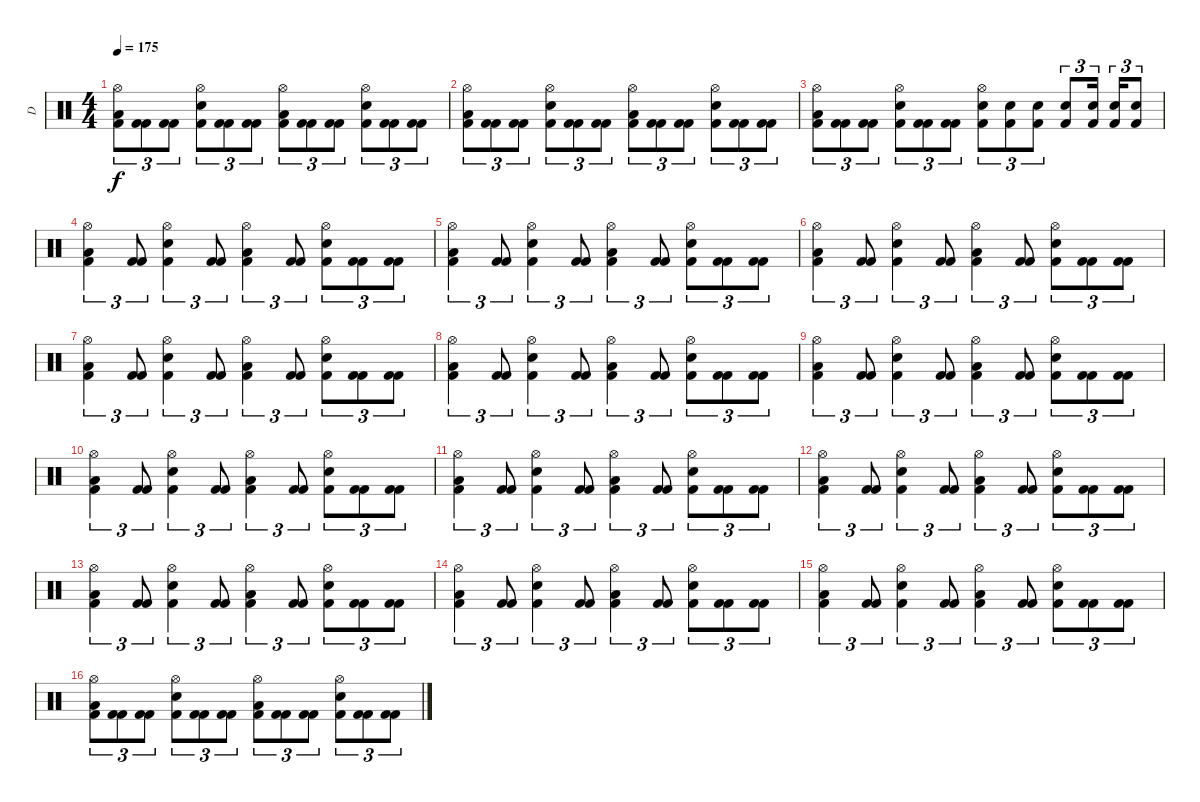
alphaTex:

\track ("D" "D") {instrument percussion}
\staff {score}
\articulation defaults
\ts (4 4)
\tempo 175
\clef neutral
\ks c
("Hi-Hat (open)" "Low Floor Tom (hit)" "Kick (hit) 2").8{tu (3 2) dy f} ("Kick (hit) 2" "Kick (hit) 2").8{tu (3 2)} ("Kick (hit) 2" "Kick (hit) 2").8{tu (3 2)} ("Hi-Hat (open)" "Electric Snare (hit)" "Kick (hit) 2").8{tu (3 2)} ("Kick (hit) 2" "Kick (hit) 2").8{tu (3 2)} ("Kick (hit) 2" "Kick (hit) 2").8{tu (3 2)} ("Hi-Hat (open)" "Low Floor Tom (hit)" "Kick (hit) 2").8{tu (3 2)} ("Kick (hit) 2" "Kick (hit) 2").8{tu (3 2)} ("Kick (hit) 2" "Kick (hit) 2").8{tu (3 2)} ("Hi-Hat (open)" "Snare (hit) 2" "Kick (hit) 2").8{tu (3 2)} ("Kick (hit) 2" "Kick (hit) 2").8{tu (3 2)} ("Kick (hit) 2" "Kick (hit) 2").8{tu (3 2)} |
("Hi-Hat (open)" "Low Floor Tom (hit)" "Kick (hit) 2").8{tu (3 2)} ("Kick (hit) 2" "Kick (hit) 2").8{tu (3 2)} ("Kick (hit) 2" "Kick (hit) 2").8{tu (3 2)} ("Hi-Hat (open)" "Electric Snare (hit)" "Kick (hit) 2").8{tu (3 2)} ("Kick (hit) 2" "Kick (hit) 2").8{tu (3 2)} ("Kick (hit) 2" "Kick (hit) 2").8{tu (3 2)} ("Hi-Hat (open)" "Low Floor Tom (hit)" "Kick (hit) 2").8{tu (3 2)} ("Kick (hit) 2" "Kick (hit) 2").8{tu (3 2)} ("Kick (hit) 2" "Kick (hit) 2").8{tu (3 2)} ("Hi-Hat (open)" "Snare (hit) 2" "Kick (hit) 2").8{tu (3 2)} ("Kick (hit) 2" "Kick (hit) 2").8{tu (3 2)} ("Kick (hit) 2" "Kick (hit) 2").8{tu (3 2)} |
("Hi-Hat (open)" "Low Floor Tom (hit)" "Kick (hit) 2").8{tu (3 2)} ("Kick (hit) 2" "Kick (hit) 2").8{tu (3 2)} ("Kick (hit) 2" "Kick (hit) 2").8{tu (3 2)} ("Hi-Hat (open)" "Electric Snare (hit)" "Kick (hit) 2").8{tu (3 2)} ("Kick (hit) 2" "Kick (hit) 2").8{tu (3 2)} ("Kick (hit) 2" "Kick (hit) 2").8{tu (3 2)} ("Hi-Hat (open)" "Snare (hit) 2" "Kick (hit) 2").8{tu (3 2)} ("Snare (hit) 2" "Kick (hit) 2").8{tu (3 2)} ("Snare (hit) 2" "Kick (hit) 2").8{tu (3 2)} ("Snare (hit) 2" "Kick (hit) 2").8{tu (3 2)} ("Snare (hit) 2" "Kick (hit) 2").16{tu (3 2)} ("Snare (hit) 2" "Kick (hit) 2").16{tu (3 2)} ("Snare (hit) 2" "Kick (hit) 2").8{tu (3 2)} |
("Hi-Hat (open)" "Low Floor Tom (hit)" "Kick (hit) 2").4{tu (3 2)} ("Kick (hit) 2" "Kick (hit) 2").8{tu (3 2)} ("Hi-Hat (open)" "Electric Snare (hit)" "Kick (hit) 2").4{tu (3 2)} ("Kick (hit) 2" "Kick (hit) 2").8{tu (3 2)} ("Hi-Hat (open)" "Low Floor Tom (hit)" "Kick (hit) 2").4{tu (3 2)} ("Kick (hit) 2" "Kick (hit) 2").8{tu (3 2)} ("Hi-Hat (open)" "Snare (hit) 2" "Kick (hit) 2").8{tu (3 2)} ("Kick (hit) 2" "Kick (hit) 2").8{tu (3 2)} ("Kick (hit) 2" "Kick (hit) 2").8{tu (3 2)} |
("Hi-Hat (open)" "Low Floor Tom (hit)" "Kick (hit) 2").4{tu (3 2)} ("Kick (hit) 2" "Kick (hit) 2").8{tu (3 2)} ("Hi-Hat (open)" "Electric Snare (hit)" "Kick (hit) 2").4{tu (3 2)} ("Kick (hit) 2" "Kick (hit) 2").8{tu (3 2)} ("Hi-Hat (open)" "Low Floor Tom (hit)" "Kick (hit) 2").4{tu (3 2)} ("Kick (hit) 2" "Kick (hit) 2").8{tu (3 2)} ("Hi-Hat (open)" "Snare (hit) 2" "Kick (hit) 2").8{tu (3 2)} ("Kick (hit) 2" "Kick (hit) 2").8{tu (3 2)} ("Kick (hit) 2" "Kick (hit) 2").8{tu (3 2)} |
("Hi-Hat (open)" "Low Floor Tom (hit)" "Kick (hit) 2").4{tu (3 2)} ("Kick (hit) 2" "Kick (hit) 2").8{tu (3 2)} ("Hi-Hat (open)" "Electric Snare (hit)" "Kick (hit) 2").4{tu (3 2)} ("Kick (hit) 2" "Kick (hit) 2").8{tu (3 2)} ("Hi-Hat (open)" "Low Floor Tom (hit)" "Kick (hit) 2").4{tu (3 2)} ("Kick (hit) 2" "Kick (hit) 2").8{tu (3 2)} ("Hi-Hat (open)" "Snare (hit) 2" "Kick (hit) 2").8{tu (3 2)} ("Kick (hit) 2" "Kick (hit) 2").8{tu (3 2)} ("Kick (hit) 2" "Kick (hit) 2").8{tu (3 2)} |
("Hi-Hat (open)" "Low Floor Tom (hit)" "Kick (hit) 2").4{tu (3 2)} ("Kick (hit) 2" "Kick (hit) 2").8{tu (3 2)} ("Hi-Hat (open)" "Electric Snare (hit)" "Kick (hit) 2").4{tu (3 2)} ("Kick (hit) 2" "Kick (hit) 2").8{tu (3 2)} ("Hi-Hat (open)" "Low Floor Tom (hit)" "Kick (hit) 2").4{tu (3 2)} ("Kick (hit) 2" "Kick (hit) 2").8{tu (3 2)} ("Hi-Hat (open)" "Snare (hit) 2" "Kick (hit) 2").8{tu (3 2)} ("Kick (hit) 2" "Kick (hit) 2").8{tu (3 2)} ("Kick (hit) 2" "Kick (hit) 2").8{tu (3 2)} |
("Hi-Hat (open)" "Low Floor Tom (hit)" "Kick (hit) 2").4{tu (3 2)} ("Kick (hit) 2" "Kick (hit) 2").8{tu (3 2)} ("Hi-Hat (open)" "Electric Snare (hit)" "Kick (hit) 2").4{tu (3 2)} ("Kick (hit) 2" "Kick (hit) 2").8{tu (3 2)} ("Hi-Hat (open)" "Low Floor Tom (hit)" "Kick (hit) 2").4{tu (3 2)} ("Kick (hit) 2" "Kick (hit) 2").8{tu (3 2)} ("Hi-Hat (open)" "Snare (hit) 2" "Kick (hit) 2").8{tu (3 2)} ("Kick (hit) 2" "Kick (hit) 2").8{tu (3 2)} ("Kick (hit) 2" "Kick (hit) 2").8{tu (3 2)} |
("Hi-Hat (open)" "Low Floor Tom (hit)" "Kick (hit) 2").4{tu (3 2)} ("Kick (hit) 2" "Kick (hit) 2").8{tu (3 2)} ("Hi-Hat (open)" "Electric Snare (hit)" "Kick (hit) 2").4{tu (3 2)} ("Kick (hit) 2" "Kick (hit) 2").8{tu (3 2)} ("Hi-Hat (open)" "Low Floor Tom (hit)" "Kick (hit) 2").4{tu (3 2)} ("Kick (hit) 2" "Kick (hit) 2").8{tu (3 2)} ("Hi-Hat (open)" "Snare (hit) 2" "Kick (hit) 2").8{tu (3 2)} ("Kick (hit) 2" "Kick (hit) 2").8{tu (3 2)} ("Kick (hit) 2" "Kick (hit) 2").8{tu (3 2)} |
("Hi-Hat (open)" "Low Floor Tom (hit)" "Kick (hit) 2").4{tu (3 2)} ("Kick (hit) 2" "Kick (hit) 2").8{tu (3 2)} ("Hi-Hat (open)" "Electric Snare (hit)" "Kick (hit) 2").4{tu (3 2)} ("Kick (hit) 2" "Kick (hit) 2").8{tu (3 2)} ("Hi-Hat (open)" "Low Floor Tom (hit)" "Kick (hit) 2").4{tu (3 2)} ("Kick (hit) 2" "Kick (hit) 2").8{tu (3 2)} ("Hi-Hat (open)" "Snare (hit) 2" "Kick (hit) 2").8{tu (3 2)} ("Kick (hit) 2" "Kick (hit) 2").8{tu (3 2)} ("Kick (hit) 2" "Kick (hit) 2").8{tu (3 2)} |
("Hi-Hat (open)" "Low Floor Tom (hit)" "Kick (hit) 2").4{tu (3 2)} ("Kick (hit) 2" "Kick (hit) 2").8{tu (3 2)} ("Hi-Hat (open)" "Electric Snare (hit)" "Kick (hit) 2").4{tu (3 2)} ("Kick (hit) 2" "Kick (hit) 2").8{tu (3 2)} ("Hi-Hat (open)" "Low Floor Tom (hit)" "Kick (hit) 2").4{tu (3 2)} ("Kick (hit) 2" "Kick (hit) 2").8{tu (3 2)} ("Hi-Hat (open)" "Snare (hit) 2" "Kick (hit) 2").8{tu (3 2)} ("Kick (hit) 2" "Kick (hit) 2").8{tu (3 2)} ("Kick (hit) 2" "Kick (hit) 2").8{tu (3 2)} |
("Hi-Hat (open)" "Low Floor Tom (hit)" "Kick (hit) 2").4{tu (3 2)} ("Kick (hit) 2" "Kick (hit) 2").8{tu (3 2)} ("Hi-Hat (open)" "Electric Snare (hit)" "Kick (hit) 2").4{tu (3 2)} ("Kick (hit) 2" "Kick (hit) 2").8{tu (3 2)} ("Hi-Hat (open)" "Low Floor Tom (hit)" "Kick (hit) 2").4{tu (3 2)} ("Kick (hit) 2" "Kick (hit) 2").8{tu (3 2)} ("Hi-Hat (open)" "Snare (hit) 2" "Kick (hit) 2").8{tu (3 2)} ("Kick (hit) 2" "Kick (hit) 2").8{tu (3 2)} ("Kick (hit) 2" "Kick (hit) 2").8{tu (3 2)} |
("Hi-Hat (open)" "Low Floor Tom (hit)" "Kick (hit) 2").4{tu (3 2)} ("Kick (hit) 2" "Kick (hit) 2").8{tu (3 2)} ("Hi-Hat (open)" "Electric Snare (hit)" "Kick (hit) 2").4{tu (3 2)} ("Kick (hit) 2" "Kick (hit) 2").8{tu (3 2)} ("Hi-Hat (open)" "Low Floor Tom (hit)" "Kick (hit) 2").4{tu (3 2)} ("Kick (hit) 2" "Kick (hit) 2").8{tu (3 2)} ("Hi-Hat (open)" "Snare (hit) 2" "Kick (hit) 2").8{tu (3 2)} ("Kick (hit) 2" "Kick (hit) 2").8{tu (3 2)} ("Kick (hit) 2" "Kick (hit) 2").8{tu (3 2)} |
("Hi-Hat (open)" "Low Floor Tom (hit)" "Kick (hit) 2").4{tu (3 2)} ("Kick (hit) 2" "Kick (hit) 2").8{tu (3 2)} ("Hi-Hat (open)" "Electric Snare (hit)" "Kick (hit) 2").4{tu (3 2)} ("Kick (hit) 2" "Kick (hit) 2").8{tu (3 2)} ("Hi-Hat (open)" "Low Floor Tom (hit)" "Kick (hit) 2").4{tu (3 2)} ("Kick (hit) 2" "Kick (hit) 2").8{tu (3 2)} ("Hi-Hat (open)" "Snare (hit) 2" "Kick (hit) 2").8{tu (3 2)} ("Kick (hit) 2" "Kick (hit) 2").8{tu (3 2)} ("Kick (hit) 2" "Kick (hit) 2").8{tu (3 2)} |
("Hi-Hat (open)" "Low Floor Tom (hit)" "Kick (hit) 2").4{tu (3 2)} ("Kick (hit) 2" "Kick (hit) 2").8{tu (3 2)} ("Hi-Hat (open)" "Electric Snare (hit)" "Kick (hit) 2").4{tu (3 2)} ("Kick (hit) 2" "Kick (hit) 2").8{tu (3 2)} ("Hi-Hat (open)" "Low Floor Tom (hit)" "Kick (hit) 2").4{tu (3 2)} ("Kick (hit) 2" "Kick (hit) 2").8{tu (3 2)} ("Hi-Hat (open)" "Snare (hit) 2" "Kick (hit) 2").8{tu (3 2)} ("Kick (hit) 2" "Kick (hit) 2").8{tu (3 2)} ("Kick (hit) 2" "Kick (hit) 2").8{tu (3 2)} |
("Hi-Hat (open)" "Low Floor Tom (hit)" "Kick (hit) 2").8{tu (3 2)} ("Kick (hit) 2" "Kick (hit) 2").8{tu (3 2)} ("Kick (hit) 2" "Kick (hit) 2").8{tu (3 2)} ("Hi-Hat (open)" "Electric Snare (hit)" "Kick (hit) 2").8{tu (3 2)} ("Kick (hit) 2" "Kick (hit) 2").8{tu (3 2)} ("Kick (hit) 2" "Kick (hit) 2").8{tu (3 2)} ("Hi-Hat (open)" "Low Floor Tom (hit)" "Kick (hit) 2").8{tu (3 2)} ("Kick (hit) 2" "Kick (hit) 2").8{tu (3 2)} ("Kick (hit) 2" "Kick (hit) 2").8{tu (3 2)} ("Hi-Hat (open)" "Snare (hit) 2" "Kick (hit) 2").8{tu (3 2)} ("Kick (hit) 2" "Kick (hit) 2").8{tu (3 2)} ("Kick (hit) 2" "Kick (hit) 2").8{tu (3 2)}
